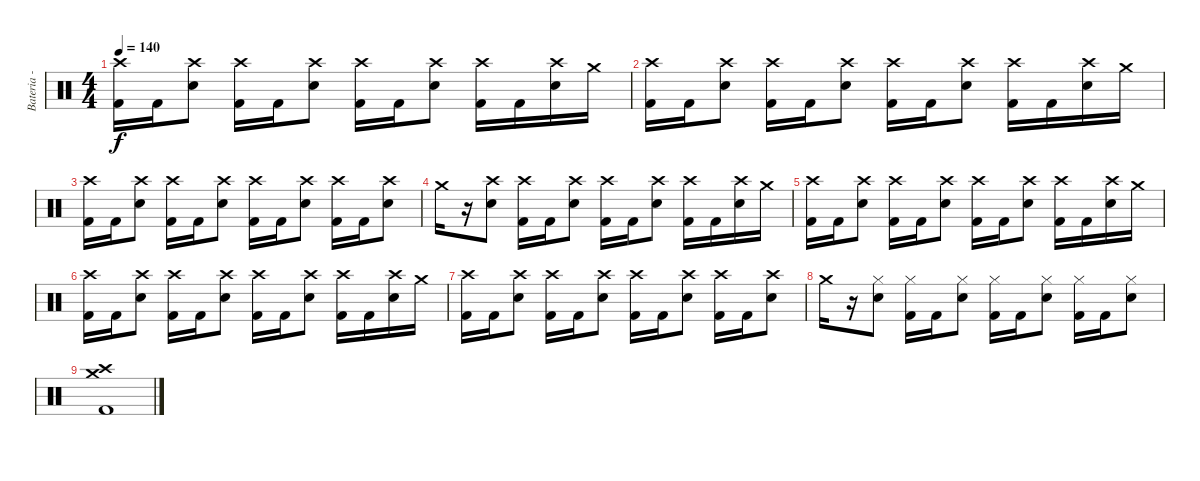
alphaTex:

\track ("Bateria - Larzon" "Bateria - ") {instrument percussion}
\staff {score}
\articulation defaults
\ts (4 4)
\tempo 140
\clef neutral
\ks c
("Kick (hit) 2" "Crash high (hit)").16{dy f} "Kick (hit) 2".16 ("Electric Snare (hit)" "Crash high (hit)").8 ("Kick (hit) 2" "Crash high (hit)").16 "Kick (hit) 2".16 ("Electric Snare (hit)" "Crash high (hit)").8 ("Kick (hit) 2" "Crash high (hit)").16 "Kick (hit) 2".16 ("Electric Snare (hit)" "Crash high (hit)").8 ("Kick (hit) 2" "Crash high (hit)").16 "Kick (hit) 2".16 ("Electric Snare (hit)" "Crash high (hit)").16 "Crash medium (hit)".16 |
("Kick (hit) 2" "Crash high (hit)").16 "Kick (hit) 2".16 ("Electric Snare (hit)" "Crash high (hit)").8 ("Kick (hit) 2" "Crash high (hit)").16 "Kick (hit) 2".16 ("Electric Snare (hit)" "Crash high (hit)").8 ("Kick (hit) 2" "Crash high (hit)").16 "Kick (hit) 2".16 ("Electric Snare (hit)" "Crash high (hit)").8 ("Kick (hit) 2" "Crash high (hit)").16 "Kick (hit) 2".16 ("Electric Snare (hit)" "Crash high (hit)").16 "Crash medium (hit)".16 |
("Kick (hit) 2" "Crash high (hit)").16 "Kick (hit) 2".16 ("Electric Snare (hit)" "Crash high (hit)").8 ("Kick (hit) 2" "Crash high (hit)").16 "Kick (hit) 2".16 ("Electric Snare (hit)" "Crash high (hit)").8 ("Kick (hit) 2" "Crash high (hit)").16 "Kick (hit) 2".16 ("Electric Snare (hit)" "Crash high (hit)").8 ("Kick (hit) 2" "Crash high (hit)").16 "Kick (hit) 2".16 ("Electric Snare (hit)" "Crash high (hit)").8 |
"Crash medium (hit)".16 r.16 ("Electric Snare (hit)" "Crash high (hit)").8 ("Kick (hit) 2" "Crash high (hit)").16 "Kick (hit) 2".16 ("Electric Snare (hit)" "Crash high (hit)").8 ("Kick (hit) 2" "Crash high (hit)").16 "Kick (hit) 2".16 ("Electric Snare (hit)" "Crash high (hit)").8 ("Kick (hit) 2" "Crash high (hit)").16 "Kick (hit) 2".16 ("Electric Snare (hit)" "Crash high (hit)").16 "Crash medium (hit)".16 |
("Kick (hit) 2" "Crash high (hit)").16 "Kick (hit) 2".16 ("Electric Snare (hit)" "Crash high (hit)").8 ("Kick (hit) 2" "Crash high (hit)").16 "Kick (hit) 2".16 ("Electric Snare (hit)" "Crash high (hit)").8 ("Kick (hit) 2" "Crash high (hit)").16 "Kick (hit) 2".16 ("Electric Snare (hit)" "Crash high (hit)").8 ("Kick (hit) 2" "Crash high (hit)").16 "Kick (hit) 2".16 ("Electric Snare (hit)" "Crash high (hit)").16 "Crash medium (hit)".16 |
("Kick (hit) 2" "Crash high (hit)").16 "Kick (hit) 2".16 ("Electric Snare (hit)" "Crash high (hit)").8 ("Kick (hit) 2" "Crash high (hit)").16 "Kick (hit) 2".16 ("Electric Snare (hit)" "Crash high (hit)").8 ("Kick (hit) 2" "Crash high (hit)").16 "Kick (hit) 2".16 ("Electric Snare (hit)" "Crash high (hit)").8 ("Kick (hit) 2" "Crash high (hit)").16 "Kick (hit) 2".16 ("Electric Snare (hit)" "Crash high (hit)").16 "Crash medium (hit)".16 |
("Kick (hit) 2" "Crash high (hit)").16 "Kick (hit) 2".16 ("Electric Snare (hit)" "Crash high (hit)").8 ("Kick (hit) 2" "Crash high (hit)").16 "Kick (hit) 2".16 ("Electric Snare (hit)" "Crash high (hit)").8 ("Kick (hit) 2" "Crash high (hit)").16 "Kick (hit) 2".16 ("Electric Snare (hit)" "Crash high (hit)").8 ("Kick (hit) 2" "Crash high (hit)").16 "Kick (hit) 2".16 ("Electric Snare (hit)" "Crash high (hit)").8 |
"Crash medium (hit)".16 r.16 ("Electric Snare (hit)" "Hi-Hat (closed)").8 ("Kick (hit) 2" "Hi-Hat (closed)").16 "Kick (hit) 2".16 ("Electric Snare (hit)" "Hi-Hat (closed)").8 ("Kick (hit) 2" "Hi-Hat (closed)").16 "Kick (hit) 2".16 ("Electric Snare (hit)" "Hi-Hat (closed)").8 ("Kick (hit) 2" "Hi-Hat (closed)").16 "Kick (hit) 2".16 ("Electric Snare (hit)" "Hi-Hat (closed)").8 |
("Crash medium (hit)" "Crash high (hit)" "Kick (hit) 2").1{volume 0}
